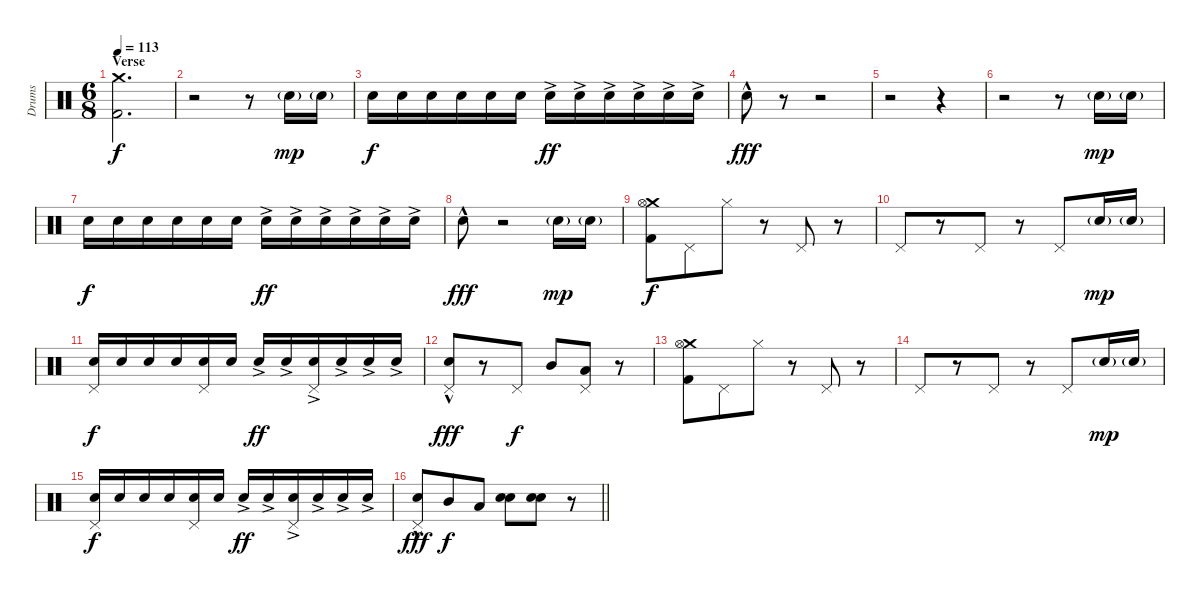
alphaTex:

\track ("Drums" "Drums") {instrument percussion}
\staff {score}
\articulation defaults
\ts (6 8)
\section ("" "Verse")
\tempo 113
\clef neutral
\ks c
("Crash medium (hit)" "Kick (hit) 2").2{d dy f} |
r.2 r.8 "Electric Snare (hit)"{g}.16{dy mp} "Electric Snare (hit)"{g}.16 |
"Electric Snare (hit)".16{dy f} "Electric Snare (hit)".16 "Electric Snare (hit)".16 "Electric Snare (hit)".16 "Electric Snare (hit)".16 "Electric Snare (hit)".16 "Electric Snare (hit)"{ac}.16{dy ff} "Electric Snare (hit)"{ac}.16 "Electric Snare (hit)"{ac}.16 "Electric Snare (hit)"{ac}.16 "Electric Snare (hit)"{ac}.16 "Electric Snare (hit)"{ac}.16 |
"Electric Snare (hit)"{hac}.8{dy fff} r.8 r.2 |
r.2 r.4 |
r.2 r.8 "Electric Snare (hit)"{g}.16{dy mp} "Electric Snare (hit)"{g}.16 |
"Electric Snare (hit)".16{dy f} "Electric Snare (hit)".16 "Electric Snare (hit)".16 "Electric Snare (hit)".16 "Electric Snare (hit)".16 "Electric Snare (hit)".16 "Electric Snare (hit)"{ac}.16{dy ff} "Electric Snare (hit)"{ac}.16 "Electric Snare (hit)"{ac}.16 "Electric Snare (hit)"{ac}.16 "Electric Snare (hit)"{ac}.16 "Electric Snare (hit)"{ac}.16 |
"Electric Snare (hit)"{hac}.8{dy fff} r.2 "Electric Snare (hit)"{g}.16{dy mp} "Electric Snare (hit)"{g}.16 |
("Crash medium (hit)" "Hi-Hat (open)" "Kick (hit) 2").8{dy f} "Pedal Hi-Hat (hit)".8 "Hi-Hat (closed)".8 r.8 "Pedal Hi-Hat (hit)".8 r.8 |
"Pedal Hi-Hat (hit)".8 r.8 "Pedal Hi-Hat (hit)".8 r.8 "Pedal Hi-Hat (hit)".8 "Electric Snare (hit)"{g}.16{dy mp} "Electric Snare (hit)"{g}.16 |
("Pedal Hi-Hat (hit)" "Electric Snare (hit)").16{dy f} "Electric Snare (hit)".16 "Electric Snare (hit)".16 "Electric Snare (hit)".16 ("Pedal Hi-Hat (hit)" "Electric Snare (hit)").16 "Electric Snare (hit)".16 "Electric Snare (hit)"{ac}.16{dy ff} "Electric Snare (hit)"{ac}.16 ("Pedal Hi-Hat (hit)" "Electric Snare (hit)"{ac}).16 "Electric Snare (hit)"{ac}.16 "Electric Snare (hit)"{ac}.16 "Electric Snare (hit)"{ac}.16 |
("Pedal Hi-Hat (hit)" "Electric Snare (hit)"{hac}).8{dy fff} r.8 "Pedal Hi-Hat (hit)".8{dy f} "Mid Tom (hit)".8 ("Pedal Hi-Hat (hit)" "Low Tom (hit)").8 r.8 |
("Crash medium (hit)" "Hi-Hat (open)" "Kick (hit) 2").8 "Pedal Hi-Hat (hit)".8 "Hi-Hat (closed)".8 r.8 "Pedal Hi-Hat (hit)".8 r.8 |
"Pedal Hi-Hat (hit)".8 r.8 "Pedal Hi-Hat (hit)".8 r.8 "Pedal Hi-Hat (hit)".8 "Electric Snare (hit)"{g}.16{dy mp} "Electric Snare (hit)"{g}.16 |
("Pedal Hi-Hat (hit)" "Electric Snare (hit)").16{dy f} "Electric Snare (hit)".16 "Electric Snare (hit)".16 "Electric Snare (hit)".16 ("Pedal Hi-Hat (hit)" "Electric Snare (hit)").16 "Electric Snare (hit)".16 "Electric Snare (hit)"{ac}.16{dy ff} "Electric Snare (hit)"{ac}.16 ("Pedal Hi-Hat (hit)" "Electric Snare (hit)"{ac}).16 "Electric Snare (hit)"{ac}.16 "Electric Snare (hit)"{ac}.16 "Electric Snare (hit)"{ac}.16 |
\barLineRight lightlight
("Pedal Hi-Hat (hit)" "Electric Snare (hit)"{hac}).8{dy fff} "Mid Tom (hit)".8{dy f} "Low Tom (hit)".8 ("Electric Snare (hit)" "Electric Snare (hit)").8 ("Electric Snare (hit)" "Electric Snare (hit)").8 r.8
